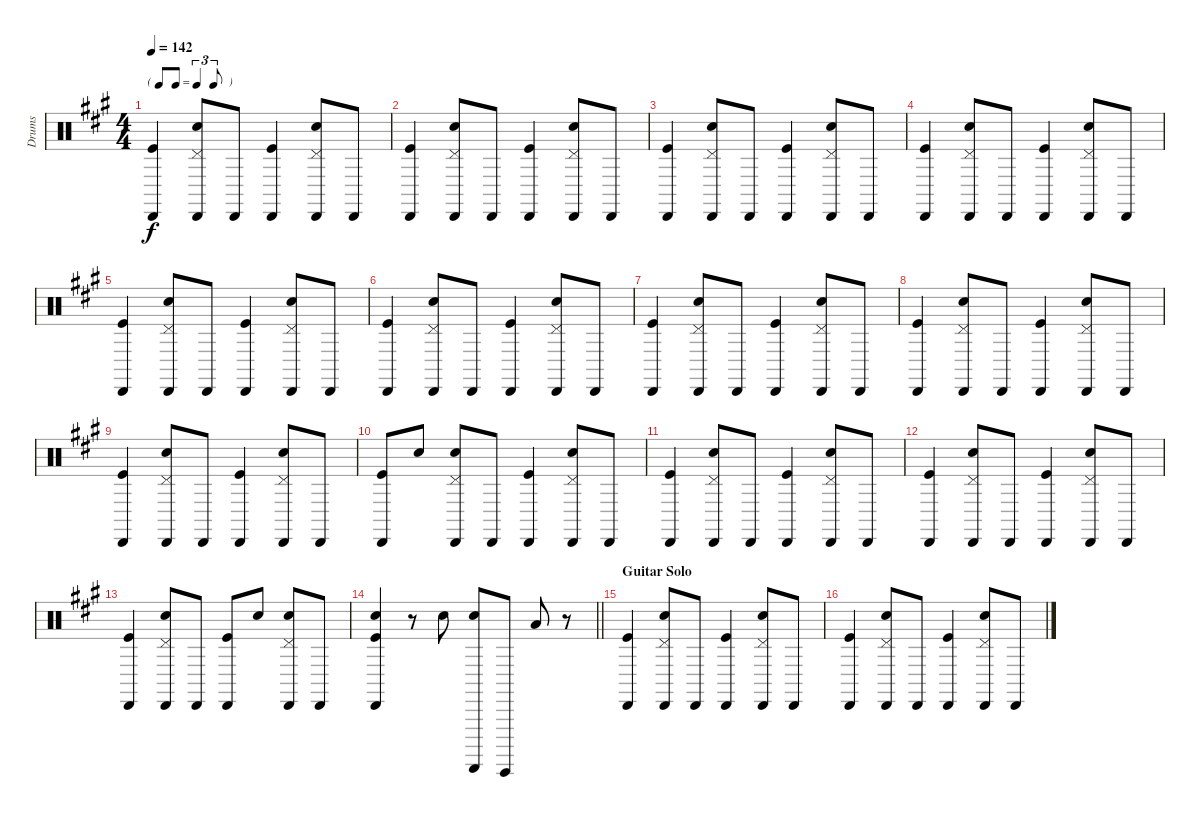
\track ("Drums" "Drums") {instrument percussion}
\staff {score}
\articulation defaults
\ts (4 4)
\tf triplet8th
\tempo 142
\clef neutral
\ks a
("Cabasa (hit)" "Kick (hit)").4{dy f} ("Pedal Hi-Hat (hit)" "Cabasa (hit)" "Snare (hit) 2").8 "Cabasa (hit)".8 ("Cabasa (hit)" "Kick (hit)").4 ("Pedal Hi-Hat (hit)" "Cabasa (hit)" "Snare (hit) 2").8 "Cabasa (hit)".8 |
("Cabasa (hit)" "Kick (hit)").4 ("Pedal Hi-Hat (hit)" "Cabasa (hit)" "Snare (hit) 2").8 "Cabasa (hit)".8 ("Cabasa (hit)" "Kick (hit)").4 ("Pedal Hi-Hat (hit)" "Cabasa (hit)" "Snare (hit) 2").8 "Cabasa (hit)".8 |
("Cabasa (hit)" "Kick (hit)").4 ("Pedal Hi-Hat (hit)" "Cabasa (hit)" "Snare (hit) 2").8 "Cabasa (hit)".8 ("Cabasa (hit)" "Kick (hit)").4 ("Pedal Hi-Hat (hit)" "Cabasa (hit)" "Snare (hit) 2").8 "Cabasa (hit)".8 |
("Cabasa (hit)" "Kick (hit)").4 ("Pedal Hi-Hat (hit)" "Cabasa (hit)" "Snare (hit) 2").8 "Cabasa (hit)".8 ("Cabasa (hit)" "Kick (hit)").4 ("Pedal Hi-Hat (hit)" "Cabasa (hit)" "Snare (hit) 2").8 "Cabasa (hit)".8 |
("Cabasa (hit)" "Kick (hit)").4 ("Pedal Hi-Hat (hit)" "Cabasa (hit)" "Snare (hit) 2").8 "Cabasa (hit)".8 ("Cabasa (hit)" "Kick (hit)").4 ("Pedal Hi-Hat (hit)" "Cabasa (hit)" "Snare (hit) 2").8 "Cabasa (hit)".8 |
("Cabasa (hit)" "Kick (hit)").4 ("Pedal Hi-Hat (hit)" "Cabasa (hit)" "Snare (hit) 2").8 "Cabasa (hit)".8 ("Cabasa (hit)" "Kick (hit)").4 ("Pedal Hi-Hat (hit)" "Cabasa (hit)" "Snare (hit) 2").8 "Cabasa (hit)".8 |
("Cabasa (hit)" "Kick (hit)").4 ("Pedal Hi-Hat (hit)" "Cabasa (hit)" "Snare (hit) 2").8 "Cabasa (hit)".8 ("Cabasa (hit)" "Kick (hit)").4 ("Pedal Hi-Hat (hit)" "Cabasa (hit)" "Snare (hit) 2").8 "Cabasa (hit)".8 |
("Cabasa (hit)" "Kick (hit)").4 ("Pedal Hi-Hat (hit)" "Cabasa (hit)" "Snare (hit) 2").8 "Cabasa (hit)".8 ("Cabasa (hit)" "Kick (hit)").4 ("Pedal Hi-Hat (hit)" "Cabasa (hit)" "Snare (hit) 2").8 "Cabasa (hit)".8 |
("Cabasa (hit)" "Kick (hit)").4 ("Pedal Hi-Hat (hit)" "Cabasa (hit)" "Snare (hit) 2").8 "Cabasa (hit)".8 ("Cabasa (hit)" "Kick (hit)").4 ("Pedal Hi-Hat (hit)" "Cabasa (hit)" "Snare (hit) 2").8 "Cabasa (hit)".8 |
("Cabasa (hit)" "Kick (hit)").8 "Snare (hit) 2".8 ("Pedal Hi-Hat (hit)" "Cabasa (hit)" "Snare (hit) 2").8 "Cabasa (hit)".8 ("Cabasa (hit)" "Kick (hit)").4 ("Pedal Hi-Hat (hit)" "Cabasa (hit)" "Snare (hit) 2").8 "Cabasa (hit)".8 |
("Cabasa (hit)" "Kick (hit)").4 ("Pedal Hi-Hat (hit)" "Cabasa (hit)" "Snare (hit) 2").8 "Cabasa (hit)".8 ("Cabasa (hit)" "Kick (hit)").4 ("Pedal Hi-Hat (hit)" "Cabasa (hit)" "Snare (hit) 2").8 "Cabasa (hit)".8 |
("Cabasa (hit)" "Kick (hit)").4 ("Pedal Hi-Hat (hit)" "Cabasa (hit)" "Snare (hit) 2").8 "Cabasa (hit)".8 ("Cabasa (hit)" "Kick (hit)").4 ("Pedal Hi-Hat (hit)" "Cabasa (hit)" "Snare (hit) 2").8 "Cabasa (hit)".8 |
("Cabasa (hit)" "Kick (hit)").4 ("Pedal Hi-Hat (hit)" "Cabasa (hit)" "Snare (hit) 2").8 "Cabasa (hit)".8 ("Cabasa (hit)" "Kick (hit)").8 "Snare (hit) 2".8 ("Pedal Hi-Hat (hit)" "Cabasa (hit)" "Snare (hit) 2").8 "Cabasa (hit)".8 |
\barLineRight lightlight
("Cabasa (hit)" "Snare (hit) 2" "Kick (hit)").4 r.8 "Snare (hit) 2".8 ("Snare (hit) 2" "Guiro (scrap-return)").8 "Guiro (hit)".8 "Low Tom (hit)".8 r.8 |
\section ("" "Guitar Solo")
("Cabasa (hit)" "Kick (hit)").4 ("Pedal Hi-Hat (hit)" "Cabasa (hit)" "Snare (hit) 2").8 "Cabasa (hit)".8 ("Cabasa (hit)" "Kick (hit)").4 ("Pedal Hi-Hat (hit)" "Cabasa (hit)" "Snare (hit) 2").8 "Cabasa (hit)".8 |
("Cabasa (hit)" "Kick (hit)").4 ("Pedal Hi-Hat (hit)" "Cabasa (hit)" "Snare (hit) 2").8 "Cabasa (hit)".8 ("Cabasa (hit)" "Kick (hit)").4 ("Pedal Hi-Hat (hit)" "Cabasa (hit)" "Snare (hit) 2").8 "Cabasa (hit)".8
